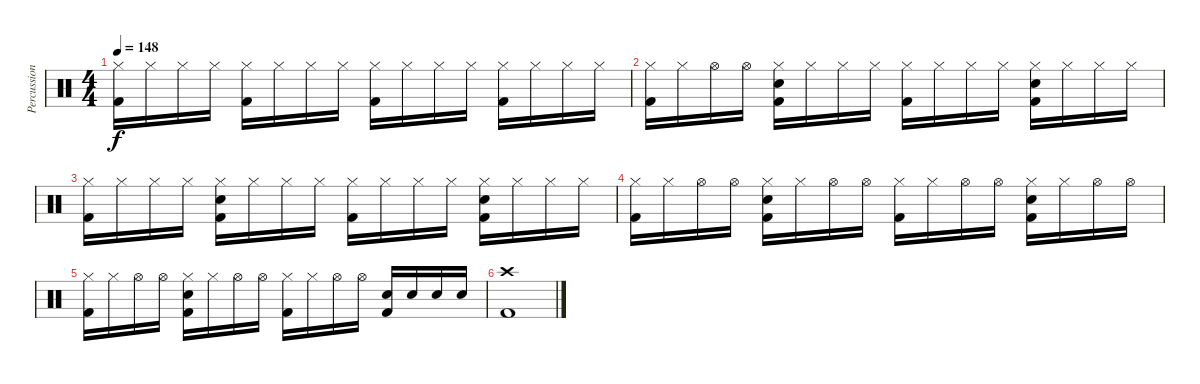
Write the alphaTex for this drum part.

\track ("Percussion" "Percussion") {instrument percussion}
\staff {score}
\articulation defaults
\ts (4 4)
\tempo 148
\clef neutral
\ks c
("Hi-Hat (closed)" "Kick (hit) 2").16{dy f} "Hi-Hat (closed)".16 "Hi-Hat (closed)".16 "Hi-Hat (closed)".16 ("Hi-Hat (closed)" "Kick (hit) 2").16 "Hi-Hat (closed)".16 "Hi-Hat (closed)".16 "Hi-Hat (closed)".16 ("Hi-Hat (closed)" "Kick (hit) 2").16 "Hi-Hat (closed)".16 "Hi-Hat (closed)".16 "Hi-Hat (closed)".16 ("Hi-Hat (closed)" "Kick (hit) 2").16 "Hi-Hat (closed)".16 "Hi-Hat (closed)".16 "Hi-Hat (closed)".16 |
("Hi-Hat (closed)" "Kick (hit) 2").16 "Hi-Hat (closed)".16 "Hi-Hat (open)".16 "Hi-Hat (open)".16 ("Hi-Hat (closed)" "Electric Snare (hit)" "Kick (hit) 2").16 "Hi-Hat (closed)".16 "Hi-Hat (closed)".16 "Hi-Hat (closed)".16 ("Hi-Hat (closed)" "Kick (hit) 2").16 "Hi-Hat (closed)".16 "Hi-Hat (closed)".16 "Hi-Hat (closed)".16 ("Hi-Hat (closed)" "Electric Snare (hit)" "Kick (hit) 2").16 "Hi-Hat (closed)".16 "Hi-Hat (closed)".16 "Hi-Hat (closed)".16 |
("Hi-Hat (closed)" "Kick (hit) 2").16 "Hi-Hat (closed)".16 "Hi-Hat (closed)".16 "Hi-Hat (closed)".16 ("Hi-Hat (closed)" "Electric Snare (hit)" "Kick (hit) 2").16 "Hi-Hat (closed)".16 "Hi-Hat (closed)".16 "Hi-Hat (closed)".16 ("Hi-Hat (closed)" "Kick (hit) 2").16 "Hi-Hat (closed)".16 "Hi-Hat (closed)".16 "Hi-Hat (closed)".16 ("Hi-Hat (closed)" "Electric Snare (hit)" "Kick (hit) 2").16 "Hi-Hat (closed)".16 "Hi-Hat (closed)".16 "Hi-Hat (closed)".16 |
("Hi-Hat (closed)" "Kick (hit) 2").16 "Hi-Hat (closed)".16 "Hi-Hat (open)".16 "Hi-Hat (open)".16 ("Hi-Hat (closed)" "Electric Snare (hit)" "Kick (hit) 2").16 "Hi-Hat (closed)".16 "Hi-Hat (open)".16 "Hi-Hat (open)".16 ("Hi-Hat (closed)" "Kick (hit) 2").16 "Hi-Hat (closed)".16 "Hi-Hat (open)".16 "Hi-Hat (open)".16 ("Hi-Hat (closed)" "Electric Snare (hit)" "Kick (hit) 2").16 "Hi-Hat (closed)".16 "Hi-Hat (open)".16 "Hi-Hat (open)".16 |
("Hi-Hat (closed)" "Kick (hit) 2").16 "Hi-Hat (closed)".16 "Hi-Hat (open)".16 "Hi-Hat (open)".16 ("Hi-Hat (closed)" "Electric Snare (hit)" "Kick (hit) 2").16 "Hi-Hat (closed)".16 "Hi-Hat (open)".16 "Hi-Hat (open)".16 ("Hi-Hat (closed)" "Kick (hit) 2").16 "Hi-Hat (closed)".16 "Hi-Hat (open)".16 "Hi-Hat (open)".16 ("Electric Snare (hit)" "Kick (hit) 2").16 "Electric Snare (hit)".16 "Electric Snare (hit)".16 "Electric Snare (hit)".16 |
("Crash high (hit)" "Kick (hit) 2").1
